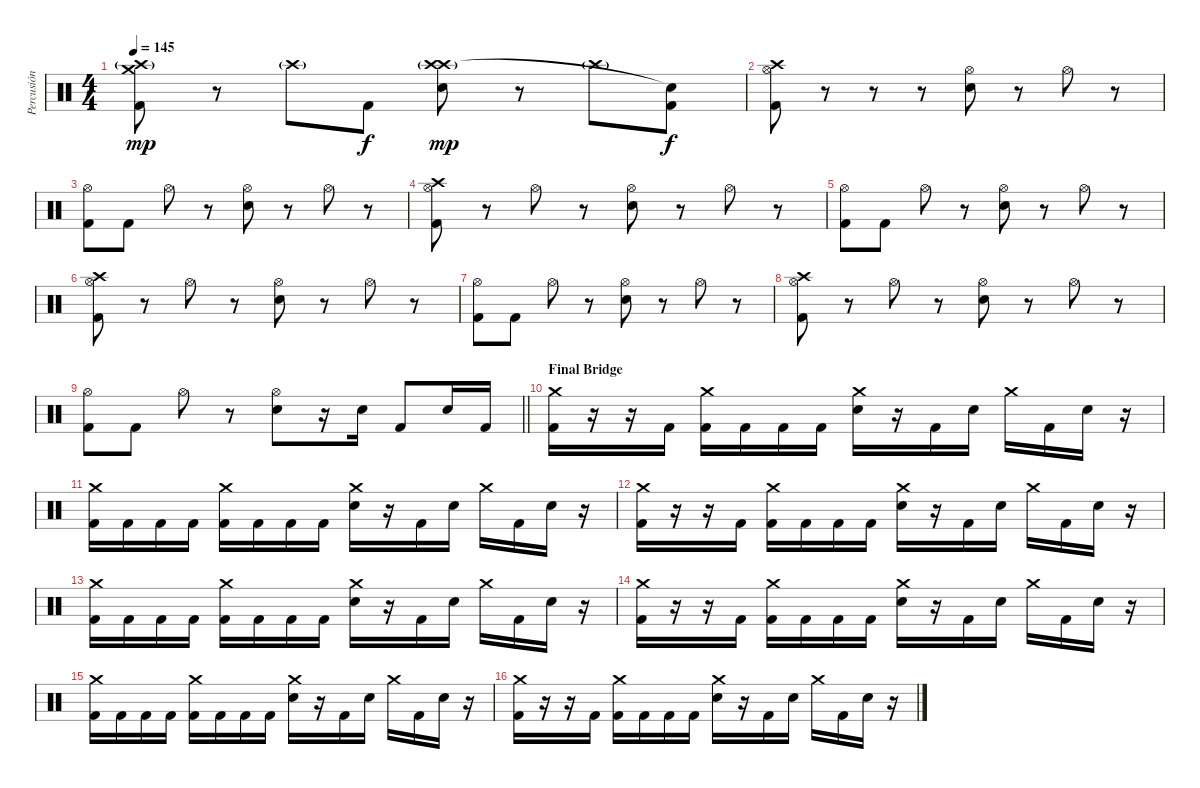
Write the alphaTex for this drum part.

\track ("Percusión" "Percusión") {instrument percussion}
\staff {score}
\articulation defaults
\ts (4 4)
\tempo 145
\clef neutral
\ks c
("Kick (hit) 2" "Crash high (hit)"{g} "Crash medium (hit)").8{dy mp} r.8 "Crash high (hit)"{g}.8 "Kick (hit) 2".8{dy f} ("Electric Snare (hit)" "Crash high (hit)"{g} "Crash high (hit)").8{dy mp} r.8 "Crash high (hit)"{g}.8 ("Kick (hit) 2" "Snare (hit)"{t}).8{dy f} |
("Kick (hit) 2" "Hi-Hat (open)" "Crash high (hit)").8 r.8 r.8 r.8 ("Electric Snare (hit)" "Hi-Hat (open)").8 r.8 "Hi-Hat (open)".8 r.8 |
("Kick (hit) 2" "Hi-Hat (open)").8 "Kick (hit) 2".8 "Hi-Hat (open)".8 r.8 ("Electric Snare (hit)" "Hi-Hat (open)").8 r.8 "Hi-Hat (open)".8 r.8 |
("Kick (hit) 2" "Hi-Hat (open)" "Crash high (hit)").8 r.8 "Hi-Hat (open)".8 r.8 ("Electric Snare (hit)" "Hi-Hat (open)").8 r.8 "Hi-Hat (open)".8 r.8 |
("Kick (hit) 2" "Hi-Hat (open)").8 "Kick (hit) 2".8 "Hi-Hat (open)".8 r.8 ("Electric Snare (hit)" "Hi-Hat (open)").8 r.8 "Hi-Hat (open)".8 r.8 |
("Kick (hit) 2" "Hi-Hat (open)" "Crash high (hit)").8 r.8 "Hi-Hat (open)".8 r.8 ("Electric Snare (hit)" "Hi-Hat (open)").8 r.8 "Hi-Hat (open)".8 r.8 |
("Kick (hit) 2" "Hi-Hat (open)").8 "Kick (hit) 2".8 "Hi-Hat (open)".8 r.8 ("Electric Snare (hit)" "Hi-Hat (open)").8 r.8 "Hi-Hat (open)".8 r.8 |
("Kick (hit) 2" "Hi-Hat (open)" "Crash high (hit)").8 r.8 "Hi-Hat (open)".8 r.8 ("Electric Snare (hit)" "Hi-Hat (open)").8 r.8 "Hi-Hat (open)".8 r.8 |
\barLineRight lightlight
("Kick (hit) 2" "Hi-Hat (open)").8 "Kick (hit) 2".8 "Hi-Hat (open)".8 r.8 ("Electric Snare (hit)" "Hi-Hat (open)").8 r.16 "Electric Snare (hit)".16 "Kick (hit) 2".8 "Electric Snare (hit)".16 "Kick (hit) 2".16 |
\section ("" "Final Bridge")
("Kick (hit) 2" "Crash medium (hit)").16 r.16 r.16 "Kick (hit) 2".16 ("Kick (hit) 2" "Crash medium (hit)").16 "Kick (hit) 2".16 "Kick (hit) 2".16 "Kick (hit) 2".16 ("Electric Snare (hit)" "Crash medium (hit)").16 r.16 "Kick (hit) 2".16 "Electric Snare (hit)".16 "Crash medium (hit)".16 "Kick (hit) 2".16 "Electric Snare (hit)".16 r.16 |
("Kick (hit) 2" "Crash medium (hit)").16 "Kick (hit) 2".16 "Kick (hit) 2".16 "Kick (hit) 2".16 ("Kick (hit) 2" "Crash medium (hit)").16 "Kick (hit) 2".16 "Kick (hit) 2".16 "Kick (hit) 2".16 ("Electric Snare (hit)" "Crash medium (hit)").16 r.16 "Kick (hit) 2".16 "Electric Snare (hit)".16 "Crash medium (hit)".16 "Kick (hit) 2".16 "Electric Snare (hit)".16 r.16 |
("Kick (hit) 2" "Crash medium (hit)").16 r.16 r.16 "Kick (hit) 2".16 ("Kick (hit) 2" "Crash medium (hit)").16 "Kick (hit) 2".16 "Kick (hit) 2".16 "Kick (hit) 2".16 ("Electric Snare (hit)" "Crash medium (hit)").16 r.16 "Kick (hit) 2".16 "Electric Snare (hit)".16 "Crash medium (hit)".16 "Kick (hit) 2".16 "Electric Snare (hit)".16 r.16 |
("Kick (hit) 2" "Crash medium (hit)").16 "Kick (hit) 2".16 "Kick (hit) 2".16 "Kick (hit) 2".16 ("Kick (hit) 2" "Crash medium (hit)").16 "Kick (hit) 2".16 "Kick (hit) 2".16 "Kick (hit) 2".16 ("Electric Snare (hit)" "Crash medium (hit)").16 r.16 "Kick (hit) 2".16 "Electric Snare (hit)".16 "Crash medium (hit)".16 "Kick (hit) 2".16 "Electric Snare (hit)".16 r.16 |
("Kick (hit) 2" "Crash medium (hit)").16 r.16 r.16 "Kick (hit) 2".16 ("Kick (hit) 2" "Crash medium (hit)").16 "Kick (hit) 2".16 "Kick (hit) 2".16 "Kick (hit) 2".16 ("Electric Snare (hit)" "Crash medium (hit)").16 r.16 "Kick (hit) 2".16 "Electric Snare (hit)".16 "Crash medium (hit)".16 "Kick (hit) 2".16 "Electric Snare (hit)".16 r.16 |
("Kick (hit) 2" "Crash medium (hit)").16 "Kick (hit) 2".16 "Kick (hit) 2".16 "Kick (hit) 2".16 ("Kick (hit) 2" "Crash medium (hit)").16 "Kick (hit) 2".16 "Kick (hit) 2".16 "Kick (hit) 2".16 ("Electric Snare (hit)" "Crash medium (hit)").16 r.16 "Kick (hit) 2".16 "Electric Snare (hit)".16 "Crash medium (hit)".16 "Kick (hit) 2".16 "Electric Snare (hit)".16 r.16 |
("Kick (hit) 2" "Crash medium (hit)").16 r.16 r.16 "Kick (hit) 2".16 ("Kick (hit) 2" "Crash medium (hit)").16 "Kick (hit) 2".16 "Kick (hit) 2".16 "Kick (hit) 2".16 ("Electric Snare (hit)" "Crash medium (hit)").16 r.16 "Kick (hit) 2".16 "Electric Snare (hit)".16 "Crash medium (hit)".16 "Kick (hit) 2".16 "Electric Snare (hit)".16 r.16
